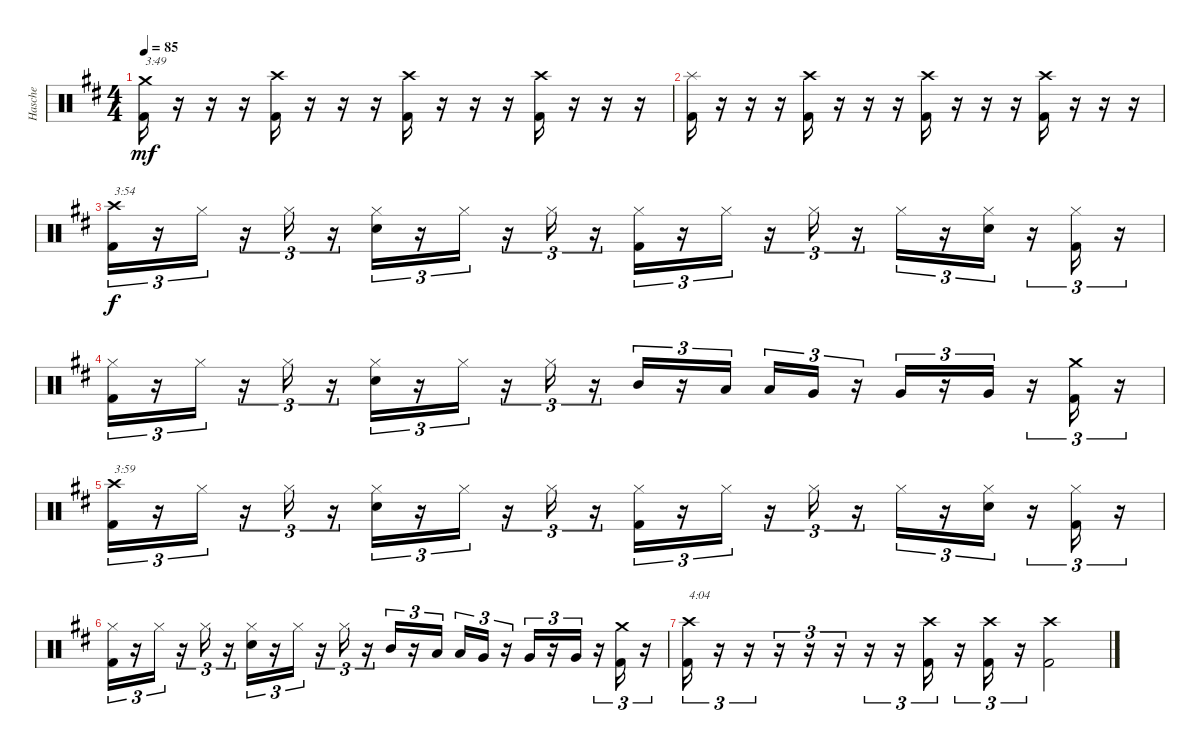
\track ("Hasche" "Hasche") {instrument percussion}
\staff {score}
\articulation defaults
\ts (4 4)
\tempo 85
\clef neutral
\ks bminor
("Crash medium (hit)" "Kick (hit) 2").16{txt "3:49" dy mf volume 13} r.16{volume 0} r.16 r.16 ("Crash high (hit)" "Kick (hit) 2").16{volume 13} r.16{volume 0} r.16 r.16 ("Crash high (hit)" "Kick (hit) 2").16{volume 13} r.16{volume 0} r.16 r.16 ("Crash high (hit)" "Kick (hit) 2").16{volume 13} r.16{volume 0} r.16 r.16 |
("Splash (hit)" "Kick (hit) 2").16{volume 13} r.16{volume 0} r.16 r.16 ("Crash high (hit)" "Kick (hit) 2").16{volume 13} r.16{volume 0} r.16 r.16 ("Crash high (hit)" "Kick (hit) 2").16{volume 13} r.16{volume 0} r.16 r.16 ("Crash high (hit)" "Kick (hit) 2").16{volume 13} r.16{volume 0} r.16 r.16 |
("Crash high (hit)" "Kick (hit) 2").16{tu (3 2) txt "3:54" dy f volume 13} r.16{tu (3 2)} "Hi-Hat (closed)".16{tu (3 2)} r.16{tu (3 2)} "Hi-Hat (closed)".16{tu (3 2)} r.16{tu (3 2)} ("Hi-Hat (closed)" "Snare (hit) 2").16{tu (3 2)} r.16{tu (3 2)} "Hi-Hat (closed)".16{tu (3 2)} r.16{tu (3 2)} "Hi-Hat (closed)".16{tu (3 2)} r.16{tu (3 2)} ("Hi-Hat (closed)" "Kick (hit) 2").16{tu (3 2)} r.16{tu (3 2)} "Hi-Hat (closed)".16{tu (3 2)} r.16{tu (3 2)} "Hi-Hat (closed)".16{tu (3 2)} r.16{tu (3 2)} "Hi-Hat (closed)".16{tu (3 2)} r.16{tu (3 2)} ("Hi-Hat (closed)" "Snare (hit) 2").16{tu (3 2)} r.16{tu (3 2)} ("Hi-Hat (closed)" "Kick (hit) 2").16{tu (3 2)} r.16{tu (3 2)} |
("Hi-Hat (closed)" "Kick (hit) 2").16{tu (3 2)} r.16{tu (3 2)} "Hi-Hat (closed)".16{tu (3 2)} r.16{tu (3 2)} "Hi-Hat (closed)".16{tu (3 2)} r.16{tu (3 2)} ("Hi-Hat (closed)" "Snare (hit) 2").16{tu (3 2)} r.16{tu (3 2)} "Hi-Hat (closed)".16{tu (3 2)} r.16{tu (3 2)} "Hi-Hat (closed)".16{tu (3 2)} r.16{tu (3 2)} "Mid Tom (hit)".16{tu (3 2)} r.16{tu (3 2)} "Low Tom (hit)".16{tu (3 2) beam splitsecondary} "Low Tom (hit)".16{tu (3 2)} "Very Low Tom (hit)".16{tu (3 2)} r.16{tu (3 2)} "Very Low Tom (hit)".16{tu (3 2)} r.16{tu (3 2)} "Very Low Tom (hit)".16{tu (3 2)} r.16{tu (3 2)} ("Crash medium (hit)" "Kick (hit) 2").16{tu (3 2)} r.16{tu (3 2)} |
("Crash high (hit)" "Kick (hit) 2").16{tu (3 2) txt "3:59"} r.16{tu (3 2)} "Hi-Hat (closed)".16{tu (3 2)} r.16{tu (3 2)} "Hi-Hat (closed)".16{tu (3 2)} r.16{tu (3 2)} ("Hi-Hat (closed)" "Snare (hit) 2").16{tu (3 2)} r.16{tu (3 2)} "Hi-Hat (closed)".16{tu (3 2)} r.16{tu (3 2)} "Hi-Hat (closed)".16{tu (3 2)} r.16{tu (3 2)} ("Hi-Hat (closed)" "Kick (hit) 2").16{tu (3 2)} r.16{tu (3 2)} "Hi-Hat (closed)".16{tu (3 2)} r.16{tu (3 2)} "Hi-Hat (closed)".16{tu (3 2)} r.16{tu (3 2)} "Hi-Hat (closed)".16{tu (3 2)} r.16{tu (3 2)} ("Hi-Hat (closed)" "Snare (hit) 2").16{tu (3 2)} r.16{tu (3 2)} ("Hi-Hat (closed)" "Kick (hit) 2").16{tu (3 2)} r.16{tu (3 2)} |
("Hi-Hat (closed)" "Kick (hit) 2").16{tu (3 2)} r.16{tu (3 2)} "Hi-Hat (closed)".16{tu (3 2)} r.16{tu (3 2)} "Hi-Hat (closed)".16{tu (3 2)} r.16{tu (3 2)} ("Hi-Hat (closed)" "Snare (hit) 2").16{tu (3 2)} r.16{tu (3 2)} "Hi-Hat (closed)".16{tu (3 2)} r.16{tu (3 2)} "Hi-Hat (closed)".16{tu (3 2)} r.16{tu (3 2)} "Mid Tom (hit)".16{tu (3 2)} r.16{tu (3 2)} "Low Tom (hit)".16{tu (3 2) beam splitsecondary} "Low Tom (hit)".16{tu (3 2)} "Very Low Tom (hit)".16{tu (3 2)} r.16{tu (3 2)} "Very Low Tom (hit)".16{tu (3 2)} r.16{tu (3 2)} "Very Low Tom (hit)".16{tu (3 2)} r.16{tu (3 2)} ("Crash medium (hit)" "Kick (hit) 2").16{tu (3 2)} r.16{tu (3 2)} |
("Crash high (hit)" "Kick (hit) 2").16{tu (3 2) txt "4:04"} r.16{tu (3 2)} r.16{tu (3 2)} r.16{tu (3 2)} r.16{tu (3 2)} r.16{tu (3 2)} r.16{tu (3 2)} r.16{tu (3 2)} ("Crash high (hit)" "Kick (hit) 2").16{tu (3 2)} r.16{tu (3 2)} ("Crash high (hit)" "Kick (hit) 2").16{tu (3 2)} r.16{tu (3 2)} ("Crash high (hit)" "Kick (hit) 2").2
